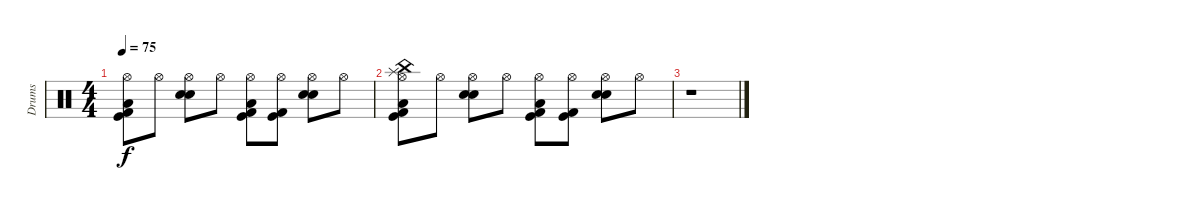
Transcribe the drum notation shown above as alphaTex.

\track ("Drums" "Drums") {instrument percussion}
\staff {score}
\articulation defaults
\ts (4 4)
\tempo 75
\clef neutral
\ks c
("Low Floor Tom (hit)" "Hi-Hat (open)" "Kick (hit)" "Kick (hit) 2").8{dy f} "Hi-Hat (open)".8 ("Hi-Hat (open)" "Snare (hit) 2" "Electric Snare (hit)").8 "Hi-Hat (open)".8 ("Low Floor Tom (hit)" "Hi-Hat (open)" "Kick (hit)" "Kick (hit) 2").8 ("Hi-Hat (open)" "Kick (hit)" "Kick (hit) 2").8 ("Hi-Hat (open)" "Snare (hit) 2" "Electric Snare (hit)").8 "Hi-Hat (open)".8 |
("China (hit)" "Splash (hit)" "Low Floor Tom (hit)" "Hi-Hat (open)" "Kick (hit)" "Kick (hit) 2").8 "Hi-Hat (open)".8 ("Hi-Hat (open)" "Snare (hit) 2" "Electric Snare (hit)").8 "Hi-Hat (open)".8 ("Low Floor Tom (hit)" "Hi-Hat (open)" "Kick (hit)" "Kick (hit) 2").8 ("Hi-Hat (open)" "Kick (hit)" "Kick (hit) 2").8 ("Hi-Hat (open)" "Snare (hit) 2" "Electric Snare (hit)").8 "Hi-Hat (open)".8 |
r.1
